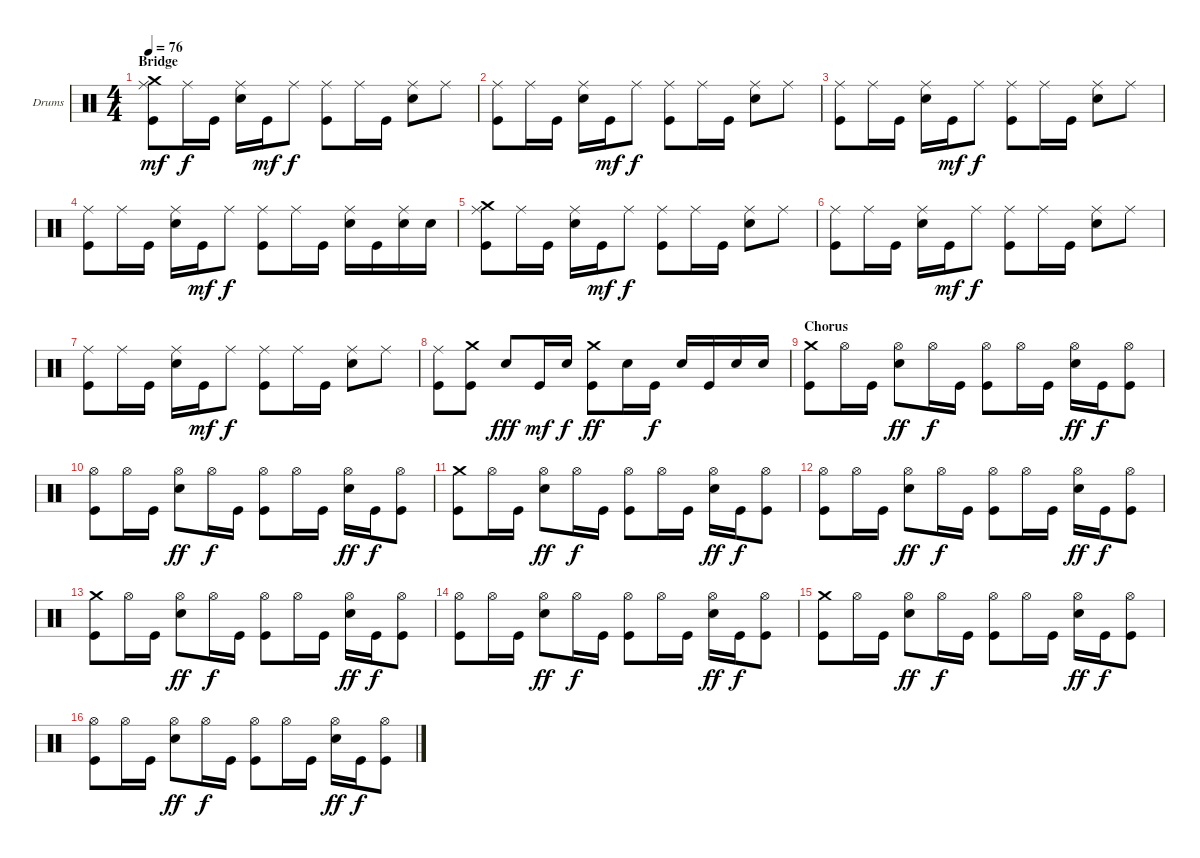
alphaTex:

\defaultSystemsLayout 4
\bracketExtendMode nobrackets
\firstSystemTrackNameOrientation horizontal
\otherSystemsTrackNameOrientation horizontal
\track ("Dave Krusen" "Drums") {instrument percussion}
\staff {score}
\articulation defaults
\ts (4 4)
\section ("" "Bridge")
\tempo 76
\clef neutral
\ks c
("Crash medium (hit)" "Kick (hit)" "Ride (middle)").8{dy mf} "Ride (middle)".16{dy f} "Kick (hit)".16 ("Snare (hit) 2" "Ride (middle)").16 "Kick (hit)".16{dy mf} "Ride (middle)".8{dy f} ("Kick (hit)" "Ride (middle)").8 "Ride (middle)".16 "Kick (hit)".16 ("Snare (hit) 2" "Ride (middle)").8 "Ride (middle)".8 |
("Ride (middle)" "Kick (hit)").8 "Ride (middle)".16 "Kick (hit)".16 ("Ride (middle)" "Snare (hit) 2").16 "Kick (hit)".16{dy mf} "Ride (middle)".8{dy f} ("Ride (middle)" "Kick (hit)").8 "Ride (middle)".16 "Kick (hit)".16 ("Ride (middle)" "Snare (hit) 2").8 "Ride (middle)".8 |
("Ride (middle)" "Kick (hit)").8 "Ride (middle)".16 "Kick (hit)".16 ("Ride (middle)" "Snare (hit) 2").16 "Kick (hit)".16{dy mf} "Ride (middle)".8{dy f} ("Ride (middle)" "Kick (hit)").8 "Ride (middle)".16 "Kick (hit)".16 ("Ride (middle)" "Snare (hit) 2").8 "Ride (middle)".8 |
("Ride (middle)" "Kick (hit)").8 "Ride (middle)".16 "Kick (hit)".16 ("Ride (middle)" "Snare (hit) 2").16 "Kick (hit)".16{dy mf} "Ride (middle)".8{dy f} ("Ride (middle)" "Kick (hit)").8 "Ride (middle)".16 "Kick (hit)".16 ("Ride (middle)" "Snare (hit) 2").16 "Kick (hit)".16 ("Ride (middle)" "Snare (hit) 2").16 "Snare (hit) 2".16 |
("Ride (middle)" "Crash medium (hit)" "Kick (hit)").8 "Ride (middle)".16 "Kick (hit)".16 ("Ride (middle)" "Snare (hit) 2").16 "Kick (hit)".16{dy mf} "Ride (middle)".8{dy f} ("Ride (middle)" "Kick (hit)").8 "Ride (middle)".16 "Kick (hit)".16 ("Ride (middle)" "Snare (hit) 2").8 "Ride (middle)".8 |
("Ride (middle)" "Kick (hit)").8 "Ride (middle)".16 "Kick (hit)".16 ("Ride (middle)" "Snare (hit) 2").16 "Kick (hit)".16{dy mf} "Ride (middle)".8{dy f} ("Ride (middle)" "Kick (hit)").8 "Ride (middle)".16 "Kick (hit)".16 ("Ride (middle)" "Snare (hit) 2").8 "Ride (middle)".8 |
("Ride (middle)" "Kick (hit)").8 "Ride (middle)".16 "Kick (hit)".16 ("Ride (middle)" "Snare (hit) 2").16 "Kick (hit)".16{dy mf} "Ride (middle)".8{dy f} ("Ride (middle)" "Kick (hit)").8 "Ride (middle)".16 "Kick (hit)".16 ("Ride (middle)" "Snare (hit) 2").8 "Ride (middle)".8 |
("Ride (middle)" "Kick (hit)").8 ("Kick (hit)" "Crash medium (hit)").8 "Snare (hit) 2".8{dy fff} "Kick (hit)".16{dy mf} "Snare (hit) 2".16{dy f} ("Crash medium (hit)" "Kick (hit)").8{dy ff} "Snare (hit) 2".16 "Kick (hit)".16{dy f} "Snare (hit) 2".16 "Kick (hit)".16 "Snare (hit) 2".16 "Snare (hit) 2".16 |
\section ("" "Chorus")
("Crash medium (hit)" "Kick (hit)").8 "Hi-Hat (open)".16 "Kick (hit)".16 ("Snare (hit) 2" "Hi-Hat (open)").8{dy ff} "Hi-Hat (open)".16{dy f} "Kick (hit)".16 ("Kick (hit)" "Hi-Hat (open)").8 "Hi-Hat (open)".16 "Kick (hit)".16 ("Snare (hit) 2" "Hi-Hat (open)").16{dy ff} "Kick (hit)".16{dy f} ("Kick (hit)" "Hi-Hat (open)").8 |
("Hi-Hat (open)" "Kick (hit)").8 "Hi-Hat (open)".16 "Kick (hit)".16 ("Snare (hit) 2" "Hi-Hat (open)").8{dy ff} "Hi-Hat (open)".16{dy f} "Kick (hit)".16 ("Kick (hit)" "Hi-Hat (open)").8 "Hi-Hat (open)".16 "Kick (hit)".16 ("Snare (hit) 2" "Hi-Hat (open)").16{dy ff} "Kick (hit)".16{dy f} ("Kick (hit)" "Hi-Hat (open)").8 |
("Crash medium (hit)" "Kick (hit)").8 "Hi-Hat (open)".16 "Kick (hit)".16 ("Snare (hit) 2" "Hi-Hat (open)").8{dy ff} "Hi-Hat (open)".16{dy f} "Kick (hit)".16 ("Kick (hit)" "Hi-Hat (open)").8 "Hi-Hat (open)".16 "Kick (hit)".16 ("Snare (hit) 2" "Hi-Hat (open)").16{dy ff} "Kick (hit)".16{dy f} ("Kick (hit)" "Hi-Hat (open)").8 |
("Hi-Hat (open)" "Kick (hit)").8 "Hi-Hat (open)".16 "Kick (hit)".16 ("Snare (hit) 2" "Hi-Hat (open)").8{dy ff} "Hi-Hat (open)".16{dy f} "Kick (hit)".16 ("Kick (hit)" "Hi-Hat (open)").8 "Hi-Hat (open)".16 "Kick (hit)".16 ("Snare (hit) 2" "Hi-Hat (open)").16{dy ff} "Kick (hit)".16{dy f} ("Kick (hit)" "Hi-Hat (open)").8 |
("Crash medium (hit)" "Kick (hit)").8 "Hi-Hat (open)".16 "Kick (hit)".16 ("Snare (hit) 2" "Hi-Hat (open)").8{dy ff} "Hi-Hat (open)".16{dy f} "Kick (hit)".16 ("Kick (hit)" "Hi-Hat (open)").8 "Hi-Hat (open)".16 "Kick (hit)".16 ("Snare (hit) 2" "Hi-Hat (open)").16{dy ff} "Kick (hit)".16{dy f} ("Kick (hit)" "Hi-Hat (open)").8 |
("Hi-Hat (open)" "Kick (hit)").8 "Hi-Hat (open)".16 "Kick (hit)".16 ("Snare (hit) 2" "Hi-Hat (open)").8{dy ff} "Hi-Hat (open)".16{dy f} "Kick (hit)".16 ("Kick (hit)" "Hi-Hat (open)").8 "Hi-Hat (open)".16 "Kick (hit)".16 ("Snare (hit) 2" "Hi-Hat (open)").16{dy ff} "Kick (hit)".16{dy f} ("Kick (hit)" "Hi-Hat (open)").8 |
("Crash medium (hit)" "Kick (hit)").8 "Hi-Hat (open)".16 "Kick (hit)".16 ("Snare (hit) 2" "Hi-Hat (open)").8{dy ff} "Hi-Hat (open)".16{dy f} "Kick (hit)".16 ("Kick (hit)" "Hi-Hat (open)").8 "Hi-Hat (open)".16 "Kick (hit)".16 ("Snare (hit) 2" "Hi-Hat (open)").16{dy ff} "Kick (hit)".16{dy f} ("Kick (hit)" "Hi-Hat (open)").8 |
("Hi-Hat (open)" "Kick (hit)").8 "Hi-Hat (open)".16 "Kick (hit)".16 ("Snare (hit) 2" "Hi-Hat (open)").8{dy ff} "Hi-Hat (open)".16{dy f} "Kick (hit)".16 ("Kick (hit)" "Hi-Hat (open)").8 "Hi-Hat (open)".16 "Kick (hit)".16 ("Snare (hit) 2" "Hi-Hat (open)").16{dy ff} "Kick (hit)".16{dy f} ("Kick (hit)" "Hi-Hat (open)").8
